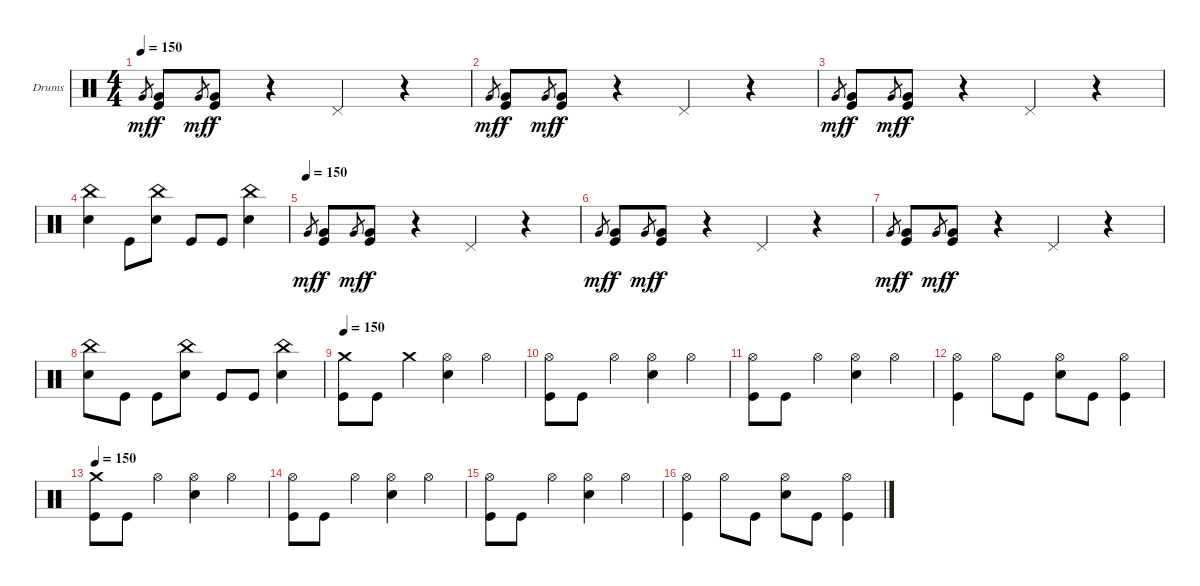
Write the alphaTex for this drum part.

\bracketExtendMode groupsimilarinstruments
\firstSystemTrackNameOrientation horizontal
\otherSystemsTrackNameOrientation horizontal
\track ("Drumkit" "Drums") {instrument percussion}
\staff {score}
\articulation defaults
\ts (4 4)
\tempo 150
\clef neutral
\ks c "Very Low Tom (hit)".8{gr dy mf}
("Very Low Tom (hit)" "Kick (hit)").8{dy f} "Very Low Tom (hit)".8{gr dy mf} ("Very Low Tom (hit)" "Kick (hit)").8{dy f} r.4 "Pedal Hi-Hat (hit)".4 r.4 |
"Very Low Tom (hit)".8{gr dy mf} ("Very Low Tom (hit)" "Kick (hit)").8{dy f} "Very Low Tom (hit)".8{gr dy mf} ("Very Low Tom (hit)" "Kick (hit)").8{dy f} r.4 "Pedal Hi-Hat (hit)".4 r.4 |
"Very Low Tom (hit)".8{gr dy mf} ("Very Low Tom (hit)" "Kick (hit)").8{dy f} "Very Low Tom (hit)".8{gr dy mf} ("Very Low Tom (hit)" "Kick (hit)").8{dy f} r.4 "Pedal Hi-Hat (hit)".4 r.4 |
("China (hit)" "Snare (hit) 2").4 "Kick (hit)".8 ("China (hit)" "Snare (hit) 2").8 "Kick (hit)".8 "Kick (hit)".8 ("China (hit)" "Snare (hit) 2").4 |
\tempo (150)
"Very Low Tom (hit)".8{gr dy mf} ("Very Low Tom (hit)" "Kick (hit)").8{dy f} "Very Low Tom (hit)".8{gr dy mf} ("Very Low Tom (hit)" "Kick (hit)").8{dy f} r.4 "Pedal Hi-Hat (hit)".4 r.4 |
"Very Low Tom (hit)".8{gr dy mf} ("Very Low Tom (hit)" "Kick (hit)").8{dy f} "Very Low Tom (hit)".8{gr dy mf} ("Very Low Tom (hit)" "Kick (hit)").8{dy f} r.4 "Pedal Hi-Hat (hit)".4 r.4 |
"Very Low Tom (hit)".8{gr dy mf} ("Very Low Tom (hit)" "Kick (hit)").8{dy f} "Very Low Tom (hit)".8{gr dy mf} ("Very Low Tom (hit)" "Kick (hit)").8{dy f} r.4 "Pedal Hi-Hat (hit)".4 r.4 |
("China (hit)" "Snare (hit) 2").8 "Kick (hit)".8 "Kick (hit)".8 ("China (hit)" "Snare (hit) 2").8 "Kick (hit)".8 "Kick (hit)".8 ("China (hit)" "Snare (hit) 2").4 |
\tempo 150
("Crash medium (hit)" "Kick (hit)").8 "Kick (hit)".8 "Crash medium (hit)".4 ("Hi-Hat (open)" "Snare (hit) 2").4 "Hi-Hat (open)".4 |
("Hi-Hat (open)" "Kick (hit)").8 "Kick (hit)".8 "Hi-Hat (open)".4 ("Hi-Hat (open)" "Snare (hit) 2").4 "Hi-Hat (open)".4 |
("Hi-Hat (open)" "Kick (hit)").8 "Kick (hit)".8 "Hi-Hat (open)".4 ("Hi-Hat (open)" "Snare (hit) 2").4 "Hi-Hat (open)".4 |
("Hi-Hat (open)" "Kick (hit)").4 "Hi-Hat (open)".8 "Kick (hit)".8 ("Hi-Hat (open)" "Snare (hit) 2").8 "Kick (hit)".8 ("Hi-Hat (open)" "Kick (hit)").4 |
\tempo 150
("Crash medium (hit)" "Kick (hit)").8 "Kick (hit)".8 "Hi-Hat (open)".4 ("Hi-Hat (open)" "Snare (hit) 2").4 "Hi-Hat (open)".4 |
("Hi-Hat (open)" "Kick (hit)").8 "Kick (hit)".8 "Hi-Hat (open)".4 ("Hi-Hat (open)" "Snare (hit) 2").4 "Hi-Hat (open)".4 |
("Hi-Hat (open)" "Kick (hit)").8 "Kick (hit)".8 "Hi-Hat (open)".4 ("Hi-Hat (open)" "Snare (hit) 2").4 "Hi-Hat (open)".4 |
("Hi-Hat (open)" "Kick (hit)").4 "Hi-Hat (open)".8 "Kick (hit)".8 ("Hi-Hat (open)" "Snare (hit) 2").8 "Kick (hit)".8 ("Hi-Hat (open)" "Kick (hit)").4
